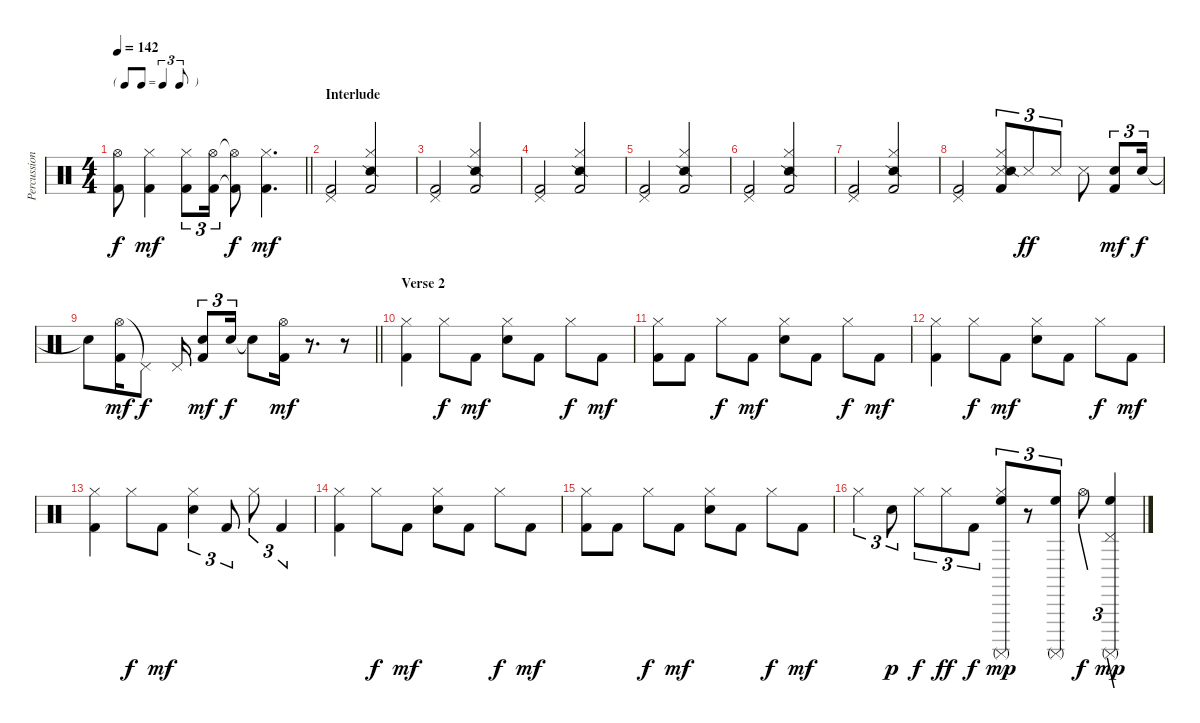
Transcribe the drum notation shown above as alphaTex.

\track ("Percussion" "Percussion") {instrument percussion}
\staff {score}
\articulation defaults
\ts (4 4)
\tf triplet8th
\tempo 142
\clef neutral
\barLineRight lightlight
\ks c
("Hi-Hat (open)"{t} "Kick (hit) 2"{t}).8{dy f} ("Hi-Hat (closed)" "Kick (hit) 2").4{dy mf} ("Hi-Hat (closed)" "Kick (hit) 2").8{tu (3 2)} ("Hi-Hat (open)" "Kick (hit) 2").16{tu (3 2)} ("Hi-Hat (open)"{t} "Kick (hit) 2"{t}).8{dy f} ("Hi-Hat (closed)" "Kick (hit) 2").4{d dy mf} |
\section ("" "Interlude")
("Pedal Hi-Hat (hit)" "Kick (hit) 2").2 ("Hi-Hat (closed)" "Snare (side stick) 2" "Kick (hit) 2").2 |
("Pedal Hi-Hat (hit)" "Kick (hit) 2").2 ("Hi-Hat (closed)" "Snare (side stick) 2" "Kick (hit) 2").2 |
("Pedal Hi-Hat (hit)" "Kick (hit) 2").2 ("Hi-Hat (closed)" "Snare (side stick) 2" "Kick (hit) 2").2 |
("Pedal Hi-Hat (hit)" "Kick (hit) 2").2 ("Hi-Hat (closed)" "Snare (side stick) 2" "Kick (hit) 2").2 |
("Pedal Hi-Hat (hit)" "Kick (hit) 2").2 ("Hi-Hat (closed)" "Snare (side stick) 2" "Kick (hit) 2").2 |
("Pedal Hi-Hat (hit)" "Kick (hit) 2").2 ("Hi-Hat (closed)" "Snare (side stick) 2" "Kick (hit) 2").2 |
("Pedal Hi-Hat (hit)" "Kick (hit) 2").2 ("Snare (side stick) 3" "Hi-Hat (closed)" "Snare (side stick) 2" "Kick (hit) 2").8{tu (3 2)} "Snare (side stick) 3".8{tu (3 2) dy ff} "Snare (side stick) 3".8{tu (3 2)} "Snare (side stick) 3".8 ("Electric Snare (hit)" "Kick (hit) 2").8{tu (3 2) dy mf} "Electric Snare (hit)".16{tu (3 2) dy f} |
\barLineRight lightlight "Snare (hit)"{t}.8
("Hi-Hat (open)" "Kick (hit) 2").16{dy mf} "Pedal Hi-Hat (hit)"{t}.8{dy f} "Pedal Hi-Hat (hit)".16 ("Electric Snare (hit)" "Kick (hit) 2").8{tu (3 2) dy mf} "Electric Snare (hit)".16{tu (3 2) dy f} "Snare (hit)"{t}.8 ("Hi-Hat (open)" "Kick (hit) 2").16{dy mf} r.8{d} r.8 |
\section ("" "Verse 2")
("Hi-Hat (closed)" "Kick (hit) 2").4 "Hi-Hat (closed)".8{dy f} "Kick (hit) 2".8{dy mf} ("Hi-Hat (closed)" "Electric Snare (hit)").8 "Kick (hit) 2".8 "Hi-Hat (closed)".8{dy f} "Kick (hit) 2".8{dy mf} |
("Hi-Hat (closed)" "Kick (hit) 2").8 "Kick (hit) 2".8 "Hi-Hat (closed)".8{dy f} "Kick (hit) 2".8{dy mf} ("Hi-Hat (closed)" "Electric Snare (hit)").8 "Kick (hit) 2".8 "Hi-Hat (closed)".8{dy f} "Kick (hit) 2".8{dy mf} |
("Hi-Hat (closed)" "Kick (hit) 2").4 "Hi-Hat (closed)".8{dy f} "Kick (hit) 2".8{dy mf} ("Hi-Hat (closed)" "Electric Snare (hit)").8 "Kick (hit) 2".8 "Hi-Hat (closed)".8{dy f} "Kick (hit) 2".8{dy mf} |
("Hi-Hat (closed)" "Kick (hit) 2").4 "Hi-Hat (closed)".8{dy f} "Kick (hit) 2".8{dy mf} ("Hi-Hat (closed)" "Electric Snare (hit)").4{tu (3 2)} "Kick (hit) 2".8{tu (3 2)} "Hi-Hat (closed)".8{tu (3 2)} "Kick (hit) 2".4{tu (3 2)} |
("Hi-Hat (closed)" "Kick (hit) 2").4 "Hi-Hat (closed)".8{dy f} "Kick (hit) 2".8{dy mf} ("Hi-Hat (closed)" "Electric Snare (hit)").8 "Kick (hit) 2".8 "Hi-Hat (closed)".8{dy f} "Kick (hit) 2".8{dy mf} |
("Hi-Hat (closed)" "Kick (hit) 2").8 "Kick (hit) 2".8 "Hi-Hat (closed)".8{dy f} "Kick (hit) 2".8{dy mf} ("Hi-Hat (closed)" "Electric Snare (hit)").8 "Kick (hit) 2".8 "Hi-Hat (closed)".8{dy f} "Kick (hit) 2".8{dy mf} |
"Hi-Hat (closed)".4{tu (3 2)} "Electric Snare (hit)".8{tu (3 2) dy p} "Hi-Hat (closed)".8{tu (3 2) dy f} "Hi-Hat (closed)".8{tu (3 2) dy ff} "Kick (hit) 2".8{tu (3 2) dy f} ("Hi-Hat (closed)" "High Floor Tom (hit)" "Surdo (mute)").8{tu (3 2) dy mp} r.8{tu (3 2)} ("High Floor Tom (hit)" "Surdo (mute)").8{tu (3 2)} "Hi-Hat (open)".8{tu (3 2) dy f} ("Pedal Hi-Hat (hit)" "High Floor Tom (hit)" "Surdo (mute)").4{tu (3 2) dy mp}
